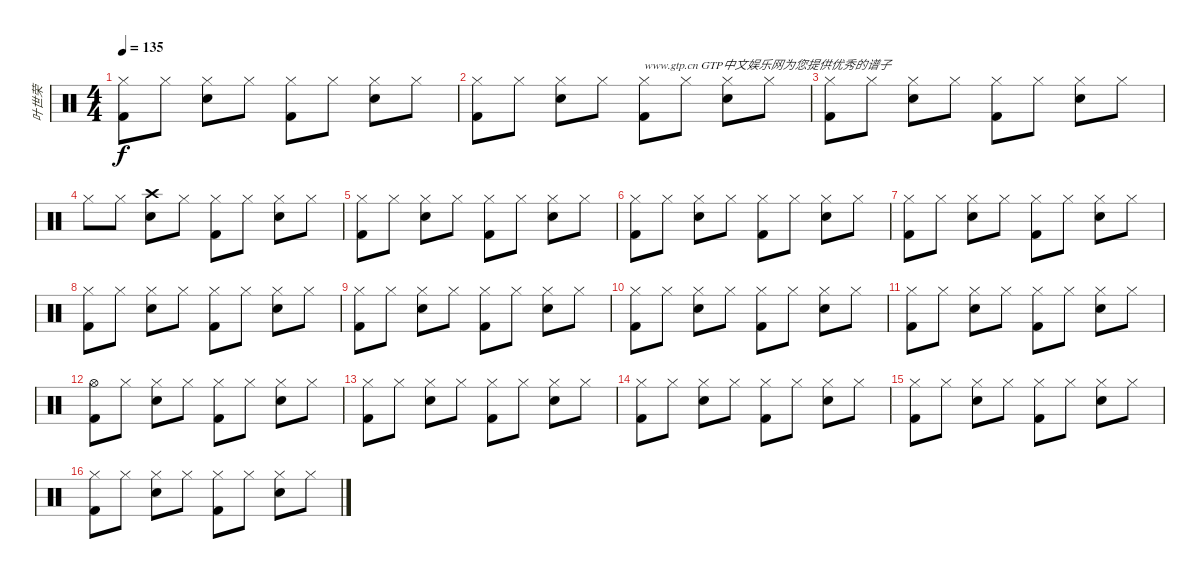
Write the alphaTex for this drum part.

\track ("叶世荣" "叶世荣") {instrument percussion}
\staff {score}
\articulation defaults
\ts (4 4)
\tempo 135
\clef neutral
\ks c
("Hi-Hat (closed)" "Kick (hit) 2").8{dy f} "Hi-Hat (closed)".8 ("Hi-Hat (closed)" "Electric Snare (hit)").8 "Hi-Hat (closed)".8 ("Hi-Hat (closed)" "Kick (hit) 2").8 "Hi-Hat (closed)".8 ("Hi-Hat (closed)" "Electric Snare (hit)").8 "Hi-Hat (closed)".8 |
("Hi-Hat (closed)" "Kick (hit) 2").8 "Hi-Hat (closed)".8 ("Hi-Hat (closed)" "Electric Snare (hit)").8 "Hi-Hat (closed)".8 ("Hi-Hat (closed)" "Kick (hit) 2").8{txt "www.gtp.cn GTP中文娱乐网为您提供优秀的谱子"} "Hi-Hat (closed)".8 ("Hi-Hat (closed)" "Electric Snare (hit)").8 "Hi-Hat (closed)".8 |
("Hi-Hat (closed)" "Kick (hit) 2").8 "Hi-Hat (closed)".8 ("Hi-Hat (closed)" "Electric Snare (hit)").8 "Hi-Hat (closed)".8 ("Hi-Hat (closed)" "Kick (hit) 2").8 "Hi-Hat (closed)".8 ("Hi-Hat (closed)" "Electric Snare (hit)").8 "Hi-Hat (closed)".8 |
"Hi-Hat (closed)".8 "Hi-Hat (closed)".8 ("Crash high (hit)" "Electric Snare (hit)").8 "Hi-Hat (closed)".8 ("Hi-Hat (closed)" "Kick (hit) 2").8 "Hi-Hat (closed)".8 ("Hi-Hat (closed)" "Electric Snare (hit)").8 "Hi-Hat (closed)".8 |
("Hi-Hat (closed)" "Kick (hit) 2").8 "Hi-Hat (closed)".8 ("Hi-Hat (closed)" "Electric Snare (hit)").8 "Hi-Hat (closed)".8 ("Hi-Hat (closed)" "Kick (hit) 2").8 "Hi-Hat (closed)".8 ("Hi-Hat (closed)" "Electric Snare (hit)").8 "Hi-Hat (closed)".8 |
("Hi-Hat (closed)" "Kick (hit) 2").8 "Hi-Hat (closed)".8 ("Hi-Hat (closed)" "Electric Snare (hit)").8 "Hi-Hat (closed)".8 ("Hi-Hat (closed)" "Kick (hit) 2").8 "Hi-Hat (closed)".8 ("Hi-Hat (closed)" "Electric Snare (hit)").8 "Hi-Hat (closed)".8 |
("Hi-Hat (closed)" "Kick (hit) 2").8 "Hi-Hat (closed)".8 ("Hi-Hat (closed)" "Electric Snare (hit)").8 "Hi-Hat (closed)".8 ("Hi-Hat (closed)" "Kick (hit) 2").8 "Hi-Hat (closed)".8 ("Hi-Hat (closed)" "Electric Snare (hit)").8 "Hi-Hat (closed)".8 |
("Hi-Hat (closed)" "Kick (hit) 2").8 "Hi-Hat (closed)".8 ("Hi-Hat (closed)" "Electric Snare (hit)").8 "Hi-Hat (closed)".8 ("Hi-Hat (closed)" "Kick (hit) 2").8 "Hi-Hat (closed)".8 ("Hi-Hat (closed)" "Electric Snare (hit)").8 "Hi-Hat (closed)".8 |
("Hi-Hat (closed)" "Kick (hit) 2").8 "Hi-Hat (closed)".8 ("Hi-Hat (closed)" "Electric Snare (hit)").8 "Hi-Hat (closed)".8 ("Hi-Hat (closed)" "Kick (hit) 2").8 "Hi-Hat (closed)".8 ("Hi-Hat (closed)" "Electric Snare (hit)").8 "Hi-Hat (closed)".8 |
("Hi-Hat (closed)" "Kick (hit) 2").8 "Hi-Hat (closed)".8 ("Hi-Hat (closed)" "Electric Snare (hit)").8 "Hi-Hat (closed)".8 ("Hi-Hat (closed)" "Kick (hit) 2").8 "Hi-Hat (closed)".8 ("Hi-Hat (closed)" "Electric Snare (hit)").8 "Hi-Hat (closed)".8 |
("Hi-Hat (closed)" "Kick (hit) 2").8 "Hi-Hat (closed)".8 ("Hi-Hat (closed)" "Electric Snare (hit)").8 "Hi-Hat (closed)".8 ("Hi-Hat (closed)" "Kick (hit) 2").8 "Hi-Hat (closed)".8 ("Hi-Hat (closed)" "Electric Snare (hit)").8 "Hi-Hat (closed)".8 |
("Hi-Hat (open)" "Kick (hit) 2").8 "Hi-Hat (closed)".8 ("Hi-Hat (closed)" "Electric Snare (hit)").8 "Hi-Hat (closed)".8 ("Hi-Hat (closed)" "Kick (hit) 2").8 "Hi-Hat (closed)".8 ("Hi-Hat (closed)" "Electric Snare (hit)").8 "Hi-Hat (closed)".8 |
("Hi-Hat (closed)" "Kick (hit) 2").8 "Hi-Hat (closed)".8 ("Hi-Hat (closed)" "Electric Snare (hit)").8 "Hi-Hat (closed)".8 ("Hi-Hat (closed)" "Kick (hit) 2").8 "Hi-Hat (closed)".8 ("Hi-Hat (closed)" "Electric Snare (hit)").8 "Hi-Hat (closed)".8 |
("Hi-Hat (closed)" "Kick (hit) 2").8 "Hi-Hat (closed)".8 ("Hi-Hat (closed)" "Electric Snare (hit)").8 "Hi-Hat (closed)".8 ("Hi-Hat (closed)" "Kick (hit) 2").8 "Hi-Hat (closed)".8 ("Hi-Hat (closed)" "Electric Snare (hit)").8 "Hi-Hat (closed)".8 |
("Hi-Hat (closed)" "Kick (hit) 2").8 "Hi-Hat (closed)".8 ("Hi-Hat (closed)" "Electric Snare (hit)").8 "Hi-Hat (closed)".8 ("Hi-Hat (closed)" "Kick (hit) 2").8 "Hi-Hat (closed)".8 ("Hi-Hat (closed)" "Electric Snare (hit)").8 "Hi-Hat (closed)".8 |
("Hi-Hat (closed)" "Kick (hit) 2").8 "Hi-Hat (closed)".8 ("Hi-Hat (closed)" "Electric Snare (hit)").8 "Hi-Hat (closed)".8 ("Hi-Hat (closed)" "Kick (hit) 2").8 "Hi-Hat (closed)".8 ("Hi-Hat (closed)" "Electric Snare (hit)").8 "Hi-Hat (closed)".8
